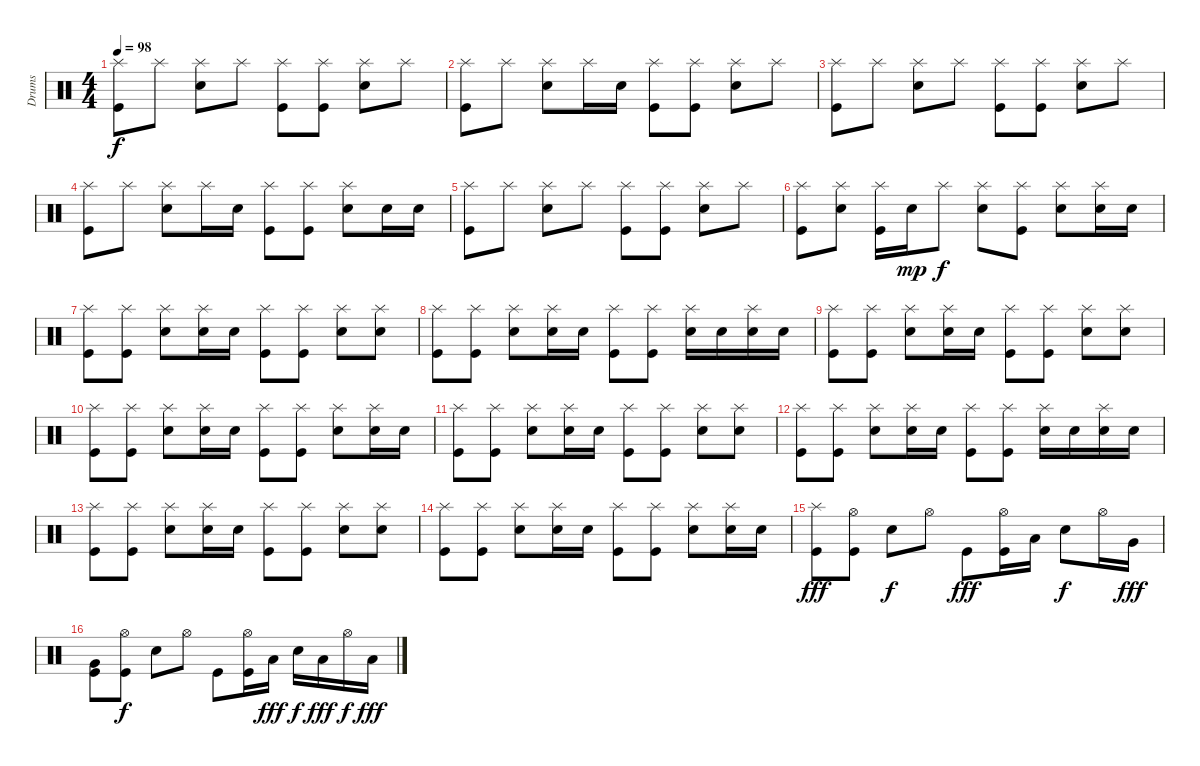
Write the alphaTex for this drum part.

\track ("Drums" "Drums") {instrument percussion}
\staff {score}
\articulation defaults
\ts (4 4)
\tempo 98
\clef neutral
\ks c
("Splash (hit)" "Kick (hit)").8{dy f} "Splash (hit)".8 ("Splash (hit)" "Snare (hit) 2").8 "Splash (hit)".8 ("Splash (hit)" "Kick (hit)").8 ("Splash (hit)" "Kick (hit)").8 ("Splash (hit)" "Snare (hit) 2").8 "Splash (hit)".8 |
("Splash (hit)" "Kick (hit)").8 "Splash (hit)".8 ("Splash (hit)" "Snare (hit) 2").8 "Splash (hit)".16 "Snare (hit) 2".16 ("Splash (hit)" "Kick (hit)").8 ("Splash (hit)" "Kick (hit)").8 ("Splash (hit)" "Snare (hit) 2").8 "Splash (hit)".8 |
("Splash (hit)" "Kick (hit)").8 "Splash (hit)".8 ("Splash (hit)" "Snare (hit) 2").8 "Splash (hit)".8 ("Splash (hit)" "Kick (hit)").8 ("Splash (hit)" "Kick (hit)").8 ("Splash (hit)" "Snare (hit) 2").8 "Splash (hit)".8 |
("Splash (hit)" "Kick (hit)").8 "Splash (hit)".8 ("Splash (hit)" "Snare (hit) 2").8 "Splash (hit)".16 "Snare (hit) 2".16 ("Splash (hit)" "Kick (hit)").8 ("Splash (hit)" "Kick (hit)").8 ("Splash (hit)" "Snare (hit) 2").8 "Snare (hit) 2".16 "Snare (hit) 2".16 |
("Splash (hit)" "Kick (hit)").8 "Splash (hit)".8 ("Splash (hit)" "Snare (hit) 2").8 "Splash (hit)".8 ("Splash (hit)" "Kick (hit)").8 ("Splash (hit)" "Kick (hit)").8 ("Splash (hit)" "Snare (hit) 2").8 "Splash (hit)".8 |
("Splash (hit)" "Kick (hit)").8 ("Splash (hit)" "Snare (hit) 2").8 ("Splash (hit)" "Kick (hit)").16 "Snare (hit) 2".16{dy mp} "Splash (hit)".8{dy f} ("Splash (hit)" "Snare (hit) 2").8 ("Splash (hit)" "Kick (hit)").8 ("Splash (hit)" "Snare (hit) 2").8 ("Splash (hit)" "Snare (hit) 2").16 "Snare (hit) 2".16 |
("Splash (hit)" "Kick (hit)").8 ("Splash (hit)" "Kick (hit)").8 ("Splash (hit)" "Snare (hit) 2").8 ("Splash (hit)" "Snare (hit) 2").16 "Snare (hit) 2".16 ("Splash (hit)" "Kick (hit)").8 ("Splash (hit)" "Kick (hit)").8 ("Splash (hit)" "Snare (hit) 2").8 ("Splash (hit)" "Snare (hit) 2").8 |
("Splash (hit)" "Kick (hit)").8 ("Splash (hit)" "Kick (hit)").8 ("Splash (hit)" "Snare (hit) 2").8 ("Splash (hit)" "Snare (hit) 2").16 "Snare (hit) 2".16 ("Splash (hit)" "Kick (hit)").8 ("Splash (hit)" "Kick (hit)").8 ("Splash (hit)" "Snare (hit) 2").16 "Snare (hit) 2".16 ("Splash (hit)" "Snare (hit) 2").16 "Snare (hit) 2".16 |
("Splash (hit)" "Kick (hit)").8 ("Splash (hit)" "Kick (hit)").8 ("Splash (hit)" "Snare (hit) 2").8 ("Splash (hit)" "Snare (hit) 2").16 "Snare (hit) 2".16 ("Splash (hit)" "Kick (hit)").8 ("Splash (hit)" "Kick (hit)").8 ("Splash (hit)" "Snare (hit) 2").8 ("Splash (hit)" "Snare (hit) 2").8 |
("Splash (hit)" "Kick (hit)").8 ("Splash (hit)" "Kick (hit)").8 ("Splash (hit)" "Snare (hit) 2").8 ("Splash (hit)" "Snare (hit) 2").16 "Snare (hit) 2".16 ("Splash (hit)" "Kick (hit)").8 ("Splash (hit)" "Kick (hit)").8 ("Splash (hit)" "Snare (hit) 2").8 ("Splash (hit)" "Snare (hit) 2").16 "Snare (hit) 2".16 |
("Splash (hit)" "Kick (hit)").8 ("Splash (hit)" "Kick (hit)").8 ("Splash (hit)" "Snare (hit) 2").8 ("Splash (hit)" "Snare (hit) 2").16 "Snare (hit) 2".16 ("Splash (hit)" "Kick (hit)").8 ("Splash (hit)" "Kick (hit)").8 ("Splash (hit)" "Snare (hit) 2").8 ("Splash (hit)" "Snare (hit) 2").8 |
("Splash (hit)" "Kick (hit)").8 ("Splash (hit)" "Kick (hit)").8 ("Splash (hit)" "Snare (hit) 2").8 ("Splash (hit)" "Snare (hit) 2").16 "Snare (hit) 2".16 ("Splash (hit)" "Kick (hit)").8 ("Splash (hit)" "Kick (hit)").8 ("Splash (hit)" "Snare (hit) 2").16 "Snare (hit) 2".16 ("Splash (hit)" "Snare (hit) 2").16 "Snare (hit) 2".16 |
("Splash (hit)" "Kick (hit)").8 ("Splash (hit)" "Kick (hit)").8 ("Splash (hit)" "Snare (hit) 2").8 ("Splash (hit)" "Snare (hit) 2").16 "Snare (hit) 2".16 ("Splash (hit)" "Kick (hit)").8 ("Splash (hit)" "Kick (hit)").8 ("Splash (hit)" "Snare (hit) 2").8 ("Splash (hit)" "Snare (hit) 2").8 |
("Splash (hit)" "Kick (hit)").8 ("Splash (hit)" "Kick (hit)").8 ("Splash (hit)" "Snare (hit) 2").8 ("Splash (hit)" "Snare (hit) 2").16 "Snare (hit) 2".16 ("Splash (hit)" "Kick (hit)").8 ("Splash (hit)" "Kick (hit)").8 ("Splash (hit)" "Snare (hit) 2").8 ("Splash (hit)" "Snare (hit) 2").16 "Snare (hit) 2".16 |
("Splash (hit)" "Kick (hit)").8{dy fff} ("Hi-Hat (open)" "Kick (hit)").8 "Snare (hit) 2".8{dy f} "Hi-Hat (open)".8 "Kick (hit)".8{dy fff} ("Hi-Hat (open)" "Kick (hit)").16 "Low Tom (hit)".16 "Snare (hit) 2".8{dy f} "Hi-Hat (open)".16 "Very Low Tom (hit)".16{dy fff} |
("Very Low Tom (hit)" "Kick (hit)").8 ("Hi-Hat (open)" "Kick (hit)").8{dy f} "Snare (hit) 2".8 "Hi-Hat (open)".8 "Kick (hit)".8 ("Hi-Hat (open)" "Kick (hit)").16 "Low Tom (hit)".16{dy fff} "Snare (hit) 2".16{dy f} "Low Tom (hit)".16{dy fff} "Hi-Hat (open)".16{dy f} "Low Tom (hit)".16{dy fff}
